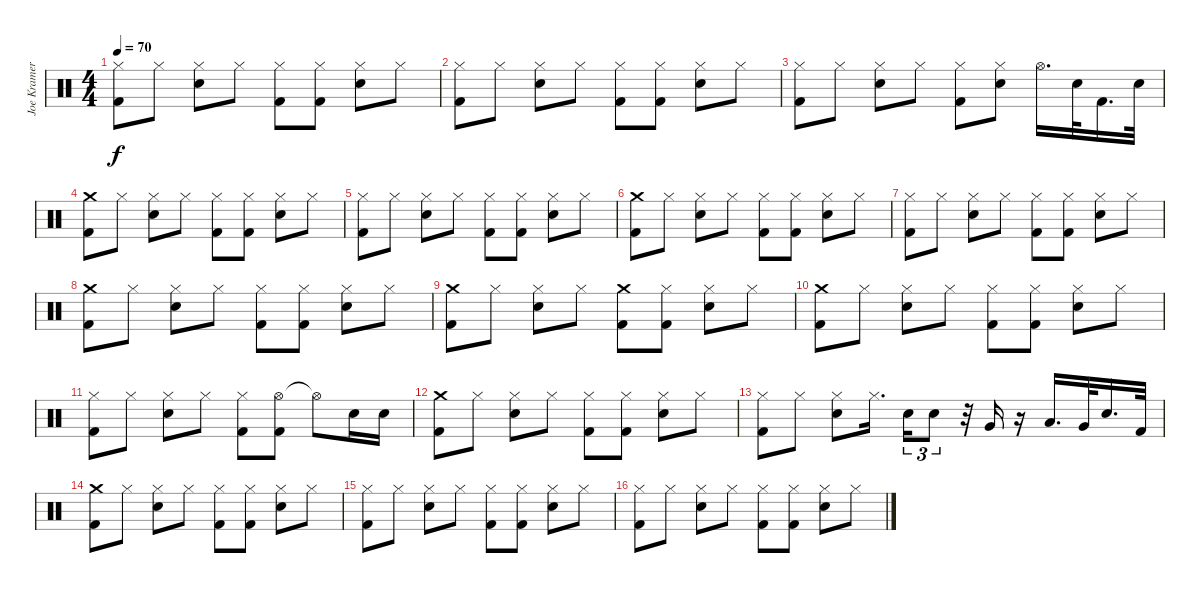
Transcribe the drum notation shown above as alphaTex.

\track ("Joe Kramer" "Joe Kramer") {instrument percussion}
\staff {score}
\articulation defaults
\ts (4 4)
\tempo 70
\clef neutral
\ks c
("Hi-Hat (closed)" "Kick (hit) 2").8{dy f} "Hi-Hat (closed)".8 ("Hi-Hat (closed)" "Snare (hit) 2").8 "Hi-Hat (closed)".8 ("Hi-Hat (closed)" "Kick (hit) 2").8 ("Hi-Hat (closed)" "Kick (hit) 2").8 ("Hi-Hat (closed)" "Snare (hit) 2").8 "Hi-Hat (closed)".8 |
("Hi-Hat (closed)" "Kick (hit) 2").8 "Hi-Hat (closed)".8 ("Hi-Hat (closed)" "Snare (hit) 2").8 "Hi-Hat (closed)".8 ("Hi-Hat (closed)" "Kick (hit) 2").8 ("Hi-Hat (closed)" "Kick (hit) 2").8 ("Hi-Hat (closed)" "Snare (hit) 2").8 "Hi-Hat (closed)".8 |
("Hi-Hat (closed)" "Kick (hit) 2").8 "Hi-Hat (closed)".8 ("Hi-Hat (closed)" "Snare (hit) 2").8 "Hi-Hat (closed)".8 ("Hi-Hat (closed)" "Kick (hit) 2").8 ("Hi-Hat (closed)" "Snare (hit) 2").8 "Hi-Hat (open)".16{d} "Snare (hit) 2".32 "Kick (hit) 2".16{d} "Snare (hit) 2".32 |
("Crash medium (hit)" "Kick (hit) 2").8 "Hi-Hat (closed)".8 ("Hi-Hat (closed)" "Snare (hit) 2").8 "Hi-Hat (closed)".8 ("Hi-Hat (closed)" "Kick (hit) 2").8 ("Hi-Hat (closed)" "Kick (hit) 2").8 ("Hi-Hat (closed)" "Snare (hit) 2").8 "Hi-Hat (closed)".8 |
("Hi-Hat (closed)" "Kick (hit) 2").8 "Hi-Hat (closed)".8 ("Hi-Hat (closed)" "Snare (hit) 2").8 "Hi-Hat (closed)".8 ("Hi-Hat (closed)" "Kick (hit) 2").8 ("Hi-Hat (closed)" "Kick (hit) 2").8 ("Hi-Hat (closed)" "Snare (hit) 2").8 "Hi-Hat (closed)".8 |
("Crash medium (hit)" "Kick (hit) 2").8 "Hi-Hat (closed)".8 ("Hi-Hat (closed)" "Snare (hit) 2").8 "Hi-Hat (closed)".8 ("Hi-Hat (closed)" "Kick (hit) 2").8 ("Hi-Hat (closed)" "Kick (hit) 2").8 ("Hi-Hat (closed)" "Snare (hit) 2").8 "Hi-Hat (closed)".8 |
("Hi-Hat (closed)" "Kick (hit) 2").8 "Hi-Hat (closed)".8 ("Hi-Hat (closed)" "Snare (hit) 2").8 "Hi-Hat (closed)".8 ("Hi-Hat (closed)" "Kick (hit) 2").8 ("Hi-Hat (closed)" "Kick (hit) 2").8 ("Hi-Hat (closed)" "Snare (hit) 2").8 "Hi-Hat (closed)".8 |
("Crash medium (hit)" "Kick (hit) 2").8 "Hi-Hat (closed)".8 ("Hi-Hat (closed)" "Snare (hit) 2").8 "Hi-Hat (closed)".8 ("Hi-Hat (closed)" "Kick (hit) 2").8 ("Hi-Hat (closed)" "Kick (hit) 2").8 ("Hi-Hat (closed)" "Snare (hit) 2").8 "Hi-Hat (closed)".8 |
("Crash medium (hit)" "Kick (hit) 2").8 "Hi-Hat (closed)".8 ("Hi-Hat (closed)" "Snare (hit) 2").8 "Hi-Hat (closed)".8 ("Crash medium (hit)" "Kick (hit) 2").8 ("Hi-Hat (closed)" "Kick (hit) 2").8 ("Hi-Hat (closed)" "Snare (hit) 2").8 "Hi-Hat (closed)".8 |
("Crash medium (hit)" "Kick (hit) 2").8 "Hi-Hat (closed)".8 ("Hi-Hat (closed)" "Snare (hit) 2").8 "Hi-Hat (closed)".8 ("Hi-Hat (closed)" "Kick (hit) 2").8 ("Hi-Hat (closed)" "Kick (hit) 2").8 ("Hi-Hat (closed)" "Snare (hit) 2").8 "Hi-Hat (closed)".8 |
("Hi-Hat (closed)" "Kick (hit) 2").8 "Hi-Hat (closed)".8 ("Hi-Hat (closed)" "Snare (hit) 2").8 "Hi-Hat (closed)".8 ("Hi-Hat (closed)" "Kick (hit) 2").8 ("Hi-Hat (open)" "Kick (hit) 2").8 "Hi-Hat (open)"{t}.8 "Snare (hit) 2".16 "Snare (hit) 2".16 |
("Crash medium (hit)" "Kick (hit) 2").8 "Hi-Hat (closed)".8 ("Hi-Hat (closed)" "Snare (hit) 2").8 "Hi-Hat (closed)".8 ("Hi-Hat (closed)" "Kick (hit) 2").8 ("Hi-Hat (closed)" "Kick (hit) 2").8 ("Hi-Hat (closed)" "Snare (hit) 2").8 "Hi-Hat (closed)".8 |
("Hi-Hat (closed)" "Kick (hit) 2").8 "Hi-Hat (closed)".8 ("Hi-Hat (closed)" "Snare (hit) 2").8 "Hi-Hat (closed)".16{d} "Snare (hit) 2".16{tu (3 2)} "Snare (hit) 2".8{tu (3 2)} r.32 "Very Low Tom (hit)".16 r.16 "Low Tom (hit)".16{d} "Very Low Tom (hit)".32 "Snare (hit) 2".16{d} "Kick (hit) 2".32 |
("Crash medium (hit)" "Kick (hit) 2").8 "Hi-Hat (closed)".8 ("Hi-Hat (closed)" "Snare (hit) 2").8 "Hi-Hat (closed)".8 ("Hi-Hat (closed)" "Kick (hit) 2").8 ("Hi-Hat (closed)" "Kick (hit) 2").8 ("Hi-Hat (closed)" "Snare (hit) 2").8 "Hi-Hat (closed)".8 |
("Hi-Hat (closed)" "Kick (hit) 2").8 "Hi-Hat (closed)".8 ("Hi-Hat (closed)" "Snare (hit) 2").8 "Hi-Hat (closed)".8 ("Hi-Hat (closed)" "Kick (hit) 2").8 ("Hi-Hat (closed)" "Kick (hit) 2").8 ("Hi-Hat (closed)" "Snare (hit) 2").8 "Hi-Hat (closed)".8 |
("Hi-Hat (closed)" "Kick (hit) 2").8 "Hi-Hat (closed)".8 ("Hi-Hat (closed)" "Snare (hit) 2").8 "Hi-Hat (closed)".8 ("Hi-Hat (closed)" "Kick (hit) 2").8 ("Hi-Hat (closed)" "Kick (hit) 2").8 ("Hi-Hat (closed)" "Snare (hit) 2").8 "Hi-Hat (closed)".8
